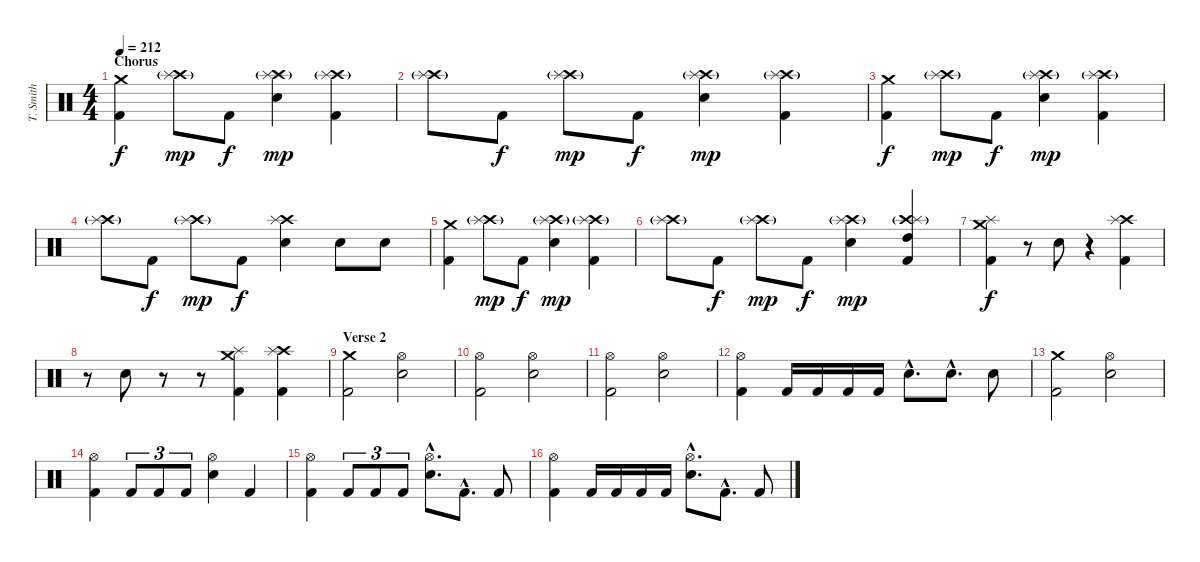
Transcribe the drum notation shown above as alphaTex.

\track ("T. Smith" "T. Smith") {instrument percussion}
\staff {score}
\articulation defaults
\ts (4 4)
\section ("" "Chorus")
\tempo 212
\clef neutral
\ks c
("Crash medium (hit)" "Kick (hit) 2").4{dy f} ("Crash high (hit)"{g} "Splash (hit)").8{dy mp} "Kick (hit) 2".8{dy f} ("Crash high (hit)"{g} "Splash (hit)" "Electric Snare (hit)").4{dy mp} ("Crash high (hit)"{g} "Splash (hit)" "Kick (hit) 2").4 |
("Crash high (hit)"{g} "Splash (hit)").8 "Kick (hit) 2".8{dy f} ("Crash high (hit)"{g} "Splash (hit)").8{dy mp} "Kick (hit) 2".8{dy f} ("Crash high (hit)"{g} "Splash (hit)" "Electric Snare (hit)").4{dy mp} ("Crash high (hit)"{g} "Splash (hit)" "Kick (hit) 2").4 |
("Crash medium (hit)" "Kick (hit) 2").4{dy f} ("Crash high (hit)"{g} "Splash (hit)").8{dy mp} "Kick (hit) 2".8{dy f} ("Crash high (hit)"{g} "Splash (hit)" "Electric Snare (hit)").4{dy mp} ("Crash high (hit)"{g} "Splash (hit)" "Kick (hit) 2").4 |
("Crash high (hit)"{g} "Splash (hit)").8 "Kick (hit) 2".8{dy f} ("Crash high (hit)"{g} "Splash (hit)").8{dy mp} "Kick (hit) 2".8{dy f} ("Crash high (hit)" "Splash (hit)" "Electric Snare (hit)").4 "Electric Snare (hit)".8 "Electric Snare (hit)".8 |
("Crash medium (hit)" "Kick (hit) 2").4 ("Crash high (hit)"{g} "Splash (hit)").8{dy mp} "Kick (hit) 2".8{dy f} ("Crash high (hit)"{g} "Splash (hit)" "Electric Snare (hit)").4{dy mp} ("Crash high (hit)"{g} "Splash (hit)" "Kick (hit) 2").4 |
("Crash high (hit)"{g} "Splash (hit)").8 "Kick (hit) 2".8{dy f} ("Crash high (hit)"{g} "Splash (hit)").8{dy mp} "Kick (hit) 2".8{dy f} ("Crash high (hit)"{g} "Splash (hit)" "Electric Snare (hit)").4{dy mp} ("Crash high (hit)"{g} "Splash (hit)" "High Tom (hit)" "Kick (hit) 2").4 |
("Crash medium (hit)" "Splash (hit)" "Kick (hit) 2").4{dy f} r.8 "Electric Snare (hit)".8 r.4 ("Crash high (hit)" "Splash (hit)" "Kick (hit) 2").4 |
r.8 "Electric Snare (hit)".8 r.8 r.8 ("Crash medium (hit)" "Splash (hit)" "Kick (hit) 2").4 ("Crash high (hit)" "Splash (hit)" "Kick (hit) 2").4 |
\section ("" "Verse 2")
("Crash medium (hit)" "Kick (hit) 2").2 ("Hi-Hat (open)" "Electric Snare (hit)").2 |
("Hi-Hat (open)" "Kick (hit) 2").2 ("Hi-Hat (open)" "Electric Snare (hit)").2 |
("Hi-Hat (open)" "Kick (hit) 2").2 ("Hi-Hat (open)" "Electric Snare (hit)").2 |
("Hi-Hat (open)" "Kick (hit) 2").4 "Kick (hit) 2".16 "Kick (hit) 2".16 "Kick (hit) 2".16 "Kick (hit) 2".16 "Electric Snare (hit)"{hac}.8{d} "Electric Snare (hit)"{hac}.8{d} "Electric Snare (hit)".8 |
("Crash medium (hit)" "Kick (hit) 2").2 ("Hi-Hat (open)" "Electric Snare (hit)").2 |
("Hi-Hat (open)" "Kick (hit) 2").4 "Kick (hit) 2".8{tu (3 2)} "Kick (hit) 2".8{tu (3 2)} "Kick (hit) 2".8{tu (3 2)} ("Hi-Hat (open)" "Electric Snare (hit)").4 "Kick (hit) 2".4 |
("Hi-Hat (open)" "Kick (hit) 2").4 "Kick (hit) 2".8{tu (3 2)} "Kick (hit) 2".8{tu (3 2)} "Kick (hit) 2".8{tu (3 2)} ("Hi-Hat (open)"{hac} "Electric Snare (hit)"{hac}).8{d} "Kick (hit) 2"{hac}.8{d} "Kick (hit) 2".8 |
("Hi-Hat (open)" "Kick (hit) 2").4 "Kick (hit) 2".16 "Kick (hit) 2".16 "Kick (hit) 2".16 "Kick (hit) 2".16 ("Hi-Hat (open)"{hac} "Electric Snare (hit)"{hac}).8{d} "Kick (hit) 2"{hac}.8{d} "Kick (hit) 2".8
